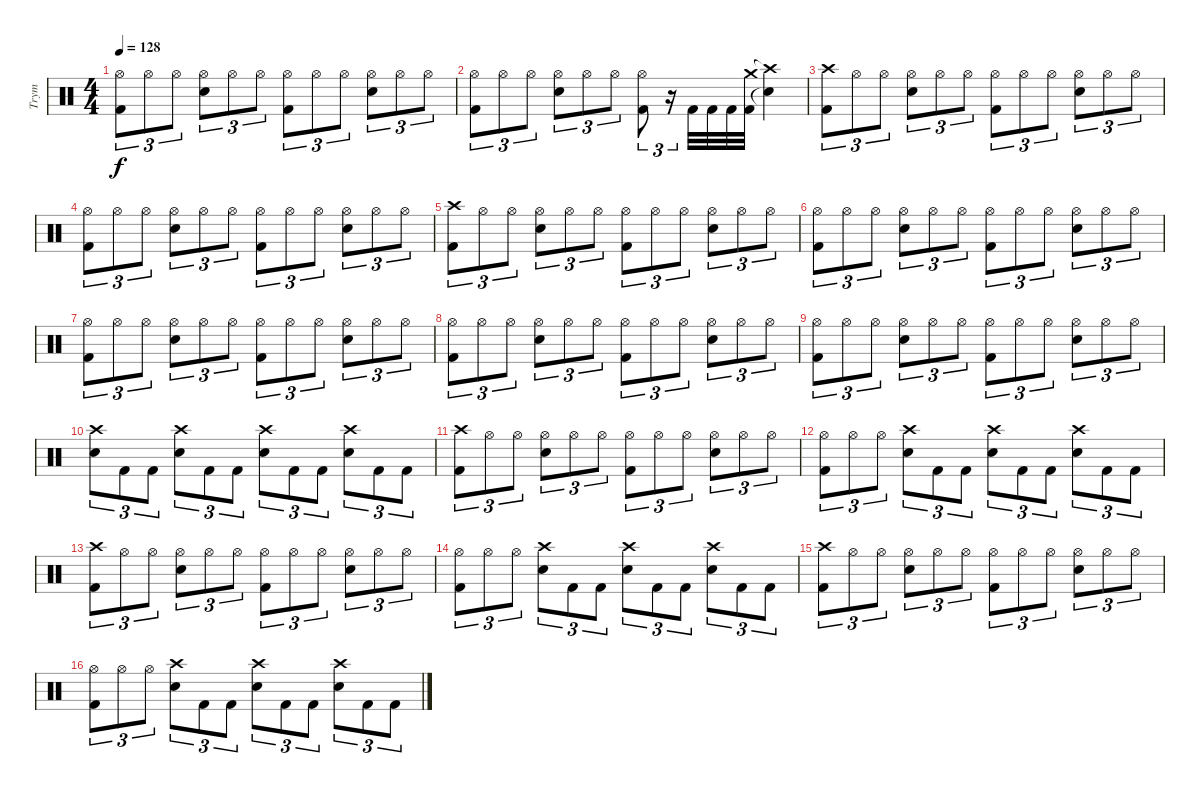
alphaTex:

\track ("Trym" "Trym") {instrument percussion}
\staff {score}
\articulation defaults
\ts (4 4)
\tempo 128
\clef neutral
\ks c
("Hi-Hat (open)" "Kick (hit) 2").8{tu (3 2) dy f} "Hi-Hat (open)".8{tu (3 2)} "Hi-Hat (open)".8{tu (3 2)} ("Hi-Hat (open)" "Electric Snare (hit)").8{tu (3 2)} "Hi-Hat (open)".8{tu (3 2)} "Hi-Hat (open)".8{tu (3 2)} ("Hi-Hat (open)" "Kick (hit) 2").8{tu (3 2)} "Hi-Hat (open)".8{tu (3 2)} "Hi-Hat (open)".8{tu (3 2)} ("Hi-Hat (open)" "Electric Snare (hit)").8{tu (3 2)} "Hi-Hat (open)".8{tu (3 2)} "Hi-Hat (open)".8{tu (3 2)} |
("Hi-Hat (open)" "Kick (hit) 2").8{tu (3 2)} "Hi-Hat (open)".8{tu (3 2)} "Hi-Hat (open)".8{tu (3 2)} ("Hi-Hat (open)" "Electric Snare (hit)").8{tu (3 2)} "Hi-Hat (open)".8{tu (3 2)} "Hi-Hat (open)".8{tu (3 2)} ("Hi-Hat (open)" "Kick (hit) 2").8{tu (3 2)} r.16{tu (3 2)} "Kick (hit) 2".32 "Kick (hit) 2".32 "Kick (hit) 2".32 ("Crash medium (hit)" "Kick (hit) 2").32 ("Crash high (hit)"{t} "Snare (hit)"{t}).4 |
("Crash high (hit)" "Kick (hit) 2").8{tu (3 2)} "Hi-Hat (open)".8{tu (3 2)} "Hi-Hat (open)".8{tu (3 2)} ("Hi-Hat (open)" "Electric Snare (hit)").8{tu (3 2)} "Hi-Hat (open)".8{tu (3 2)} "Hi-Hat (open)".8{tu (3 2)} ("Hi-Hat (open)" "Kick (hit) 2").8{tu (3 2)} "Hi-Hat (open)".8{tu (3 2)} "Hi-Hat (open)".8{tu (3 2)} ("Hi-Hat (open)" "Electric Snare (hit)").8{tu (3 2)} "Hi-Hat (open)".8{tu (3 2)} "Hi-Hat (open)".8{tu (3 2)} |
("Hi-Hat (open)" "Kick (hit) 2").8{tu (3 2)} "Hi-Hat (open)".8{tu (3 2)} "Hi-Hat (open)".8{tu (3 2)} ("Hi-Hat (open)" "Electric Snare (hit)").8{tu (3 2)} "Hi-Hat (open)".8{tu (3 2)} "Hi-Hat (open)".8{tu (3 2)} ("Hi-Hat (open)" "Kick (hit) 2").8{tu (3 2)} "Hi-Hat (open)".8{tu (3 2)} "Hi-Hat (open)".8{tu (3 2)} ("Hi-Hat (open)" "Electric Snare (hit)").8{tu (3 2)} "Hi-Hat (open)".8{tu (3 2)} "Hi-Hat (open)".8{tu (3 2)} |
("Crash high (hit)" "Kick (hit) 2").8{tu (3 2)} "Hi-Hat (open)".8{tu (3 2)} "Hi-Hat (open)".8{tu (3 2)} ("Hi-Hat (open)" "Electric Snare (hit)").8{tu (3 2)} "Hi-Hat (open)".8{tu (3 2)} "Hi-Hat (open)".8{tu (3 2)} ("Hi-Hat (open)" "Kick (hit) 2").8{tu (3 2)} "Hi-Hat (open)".8{tu (3 2)} "Hi-Hat (open)".8{tu (3 2)} ("Hi-Hat (open)" "Electric Snare (hit)").8{tu (3 2)} "Hi-Hat (open)".8{tu (3 2)} "Hi-Hat (open)".8{tu (3 2)} |
("Hi-Hat (open)" "Kick (hit) 2").8{tu (3 2)} "Hi-Hat (open)".8{tu (3 2)} "Hi-Hat (open)".8{tu (3 2)} ("Hi-Hat (open)" "Electric Snare (hit)").8{tu (3 2)} "Hi-Hat (open)".8{tu (3 2)} "Hi-Hat (open)".8{tu (3 2)} ("Hi-Hat (open)" "Kick (hit) 2").8{tu (3 2)} "Hi-Hat (open)".8{tu (3 2)} "Hi-Hat (open)".8{tu (3 2)} ("Hi-Hat (open)" "Electric Snare (hit)").8{tu (3 2)} "Hi-Hat (open)".8{tu (3 2)} "Hi-Hat (open)".8{tu (3 2)} |
("Hi-Hat (open)" "Kick (hit) 2").8{tu (3 2)} "Hi-Hat (open)".8{tu (3 2)} "Hi-Hat (open)".8{tu (3 2)} ("Hi-Hat (open)" "Electric Snare (hit)").8{tu (3 2)} "Hi-Hat (open)".8{tu (3 2)} "Hi-Hat (open)".8{tu (3 2)} ("Hi-Hat (open)" "Kick (hit) 2").8{tu (3 2)} "Hi-Hat (open)".8{tu (3 2)} "Hi-Hat (open)".8{tu (3 2)} ("Hi-Hat (open)" "Electric Snare (hit)").8{tu (3 2)} "Hi-Hat (open)".8{tu (3 2)} "Hi-Hat (open)".8{tu (3 2)} |
("Hi-Hat (open)" "Kick (hit) 2").8{tu (3 2)} "Hi-Hat (open)".8{tu (3 2)} "Hi-Hat (open)".8{tu (3 2)} ("Hi-Hat (open)" "Electric Snare (hit)").8{tu (3 2)} "Hi-Hat (open)".8{tu (3 2)} "Hi-Hat (open)".8{tu (3 2)} ("Hi-Hat (open)" "Kick (hit) 2").8{tu (3 2)} "Hi-Hat (open)".8{tu (3 2)} "Hi-Hat (open)".8{tu (3 2)} ("Hi-Hat (open)" "Electric Snare (hit)").8{tu (3 2)} "Hi-Hat (open)".8{tu (3 2)} "Hi-Hat (open)".8{tu (3 2)} |
("Hi-Hat (open)" "Kick (hit) 2").8{tu (3 2)} "Hi-Hat (open)".8{tu (3 2)} "Hi-Hat (open)".8{tu (3 2)} ("Hi-Hat (open)" "Electric Snare (hit)").8{tu (3 2)} "Hi-Hat (open)".8{tu (3 2)} "Hi-Hat (open)".8{tu (3 2)} ("Hi-Hat (open)" "Kick (hit) 2").8{tu (3 2)} "Hi-Hat (open)".8{tu (3 2)} "Hi-Hat (open)".8{tu (3 2)} ("Hi-Hat (open)" "Electric Snare (hit)").8{tu (3 2)} "Hi-Hat (open)".8{tu (3 2)} "Hi-Hat (open)".8{tu (3 2)} |
("Crash high (hit)" "Electric Snare (hit)").8{tu (3 2)} "Kick (hit) 2".8{tu (3 2)} "Kick (hit) 2".8{tu (3 2)} ("Crash high (hit)" "Electric Snare (hit)").8{tu (3 2)} "Kick (hit) 2".8{tu (3 2)} "Kick (hit) 2".8{tu (3 2)} ("Crash high (hit)" "Electric Snare (hit)").8{tu (3 2)} "Kick (hit) 2".8{tu (3 2)} "Kick (hit) 2".8{tu (3 2)} ("Crash high (hit)" "Electric Snare (hit)").8{tu (3 2)} "Kick (hit) 2".8{tu (3 2)} "Kick (hit) 2".8{tu (3 2)} |
("Crash high (hit)" "Kick (hit) 2").8{tu (3 2)} "Hi-Hat (open)".8{tu (3 2)} "Hi-Hat (open)".8{tu (3 2)} ("Hi-Hat (open)" "Electric Snare (hit)").8{tu (3 2)} "Hi-Hat (open)".8{tu (3 2)} "Hi-Hat (open)".8{tu (3 2)} ("Hi-Hat (open)" "Kick (hit) 2").8{tu (3 2)} "Hi-Hat (open)".8{tu (3 2)} "Hi-Hat (open)".8{tu (3 2)} ("Hi-Hat (open)" "Electric Snare (hit)").8{tu (3 2)} "Hi-Hat (open)".8{tu (3 2)} "Hi-Hat (open)".8{tu (3 2)} |
("Hi-Hat (open)" "Kick (hit) 2").8{tu (3 2)} "Hi-Hat (open)".8{tu (3 2)} "Hi-Hat (open)".8{tu (3 2)} ("Crash high (hit)" "Electric Snare (hit)").8{tu (3 2)} "Kick (hit) 2".8{tu (3 2)} "Kick (hit) 2".8{tu (3 2)} ("Crash high (hit)" "Electric Snare (hit)").8{tu (3 2)} "Kick (hit) 2".8{tu (3 2)} "Kick (hit) 2".8{tu (3 2)} ("Crash high (hit)" "Electric Snare (hit)").8{tu (3 2)} "Kick (hit) 2".8{tu (3 2)} "Kick (hit) 2".8{tu (3 2)} |
("Crash high (hit)" "Kick (hit) 2").8{tu (3 2)} "Hi-Hat (open)".8{tu (3 2)} "Hi-Hat (open)".8{tu (3 2)} ("Hi-Hat (open)" "Electric Snare (hit)").8{tu (3 2)} "Hi-Hat (open)".8{tu (3 2)} "Hi-Hat (open)".8{tu (3 2)} ("Hi-Hat (open)" "Kick (hit) 2").8{tu (3 2)} "Hi-Hat (open)".8{tu (3 2)} "Hi-Hat (open)".8{tu (3 2)} ("Hi-Hat (open)" "Electric Snare (hit)").8{tu (3 2)} "Hi-Hat (open)".8{tu (3 2)} "Hi-Hat (open)".8{tu (3 2)} |
("Hi-Hat (open)" "Kick (hit) 2").8{tu (3 2)} "Hi-Hat (open)".8{tu (3 2)} "Hi-Hat (open)".8{tu (3 2)} ("Crash high (hit)" "Electric Snare (hit)").8{tu (3 2)} "Kick (hit) 2".8{tu (3 2)} "Kick (hit) 2".8{tu (3 2)} ("Crash high (hit)" "Electric Snare (hit)").8{tu (3 2)} "Kick (hit) 2".8{tu (3 2)} "Kick (hit) 2".8{tu (3 2)} ("Crash high (hit)" "Electric Snare (hit)").8{tu (3 2)} "Kick (hit) 2".8{tu (3 2)} "Kick (hit) 2".8{tu (3 2)} |
("Crash high (hit)" "Kick (hit) 2").8{tu (3 2)} "Hi-Hat (open)".8{tu (3 2)} "Hi-Hat (open)".8{tu (3 2)} ("Hi-Hat (open)" "Electric Snare (hit)").8{tu (3 2)} "Hi-Hat (open)".8{tu (3 2)} "Hi-Hat (open)".8{tu (3 2)} ("Hi-Hat (open)" "Kick (hit) 2").8{tu (3 2)} "Hi-Hat (open)".8{tu (3 2)} "Hi-Hat (open)".8{tu (3 2)} ("Hi-Hat (open)" "Electric Snare (hit)").8{tu (3 2)} "Hi-Hat (open)".8{tu (3 2)} "Hi-Hat (open)".8{tu (3 2)} |
("Hi-Hat (open)" "Kick (hit) 2").8{tu (3 2)} "Hi-Hat (open)".8{tu (3 2)} "Hi-Hat (open)".8{tu (3 2)} ("Crash high (hit)" "Electric Snare (hit)").8{tu (3 2)} "Kick (hit) 2".8{tu (3 2)} "Kick (hit) 2".8{tu (3 2)} ("Crash high (hit)" "Electric Snare (hit)").8{tu (3 2)} "Kick (hit) 2".8{tu (3 2)} "Kick (hit) 2".8{tu (3 2)} ("Crash high (hit)" "Electric Snare (hit)").8{tu (3 2)} "Kick (hit) 2".8{tu (3 2)} "Kick (hit) 2".8{tu (3 2)}
